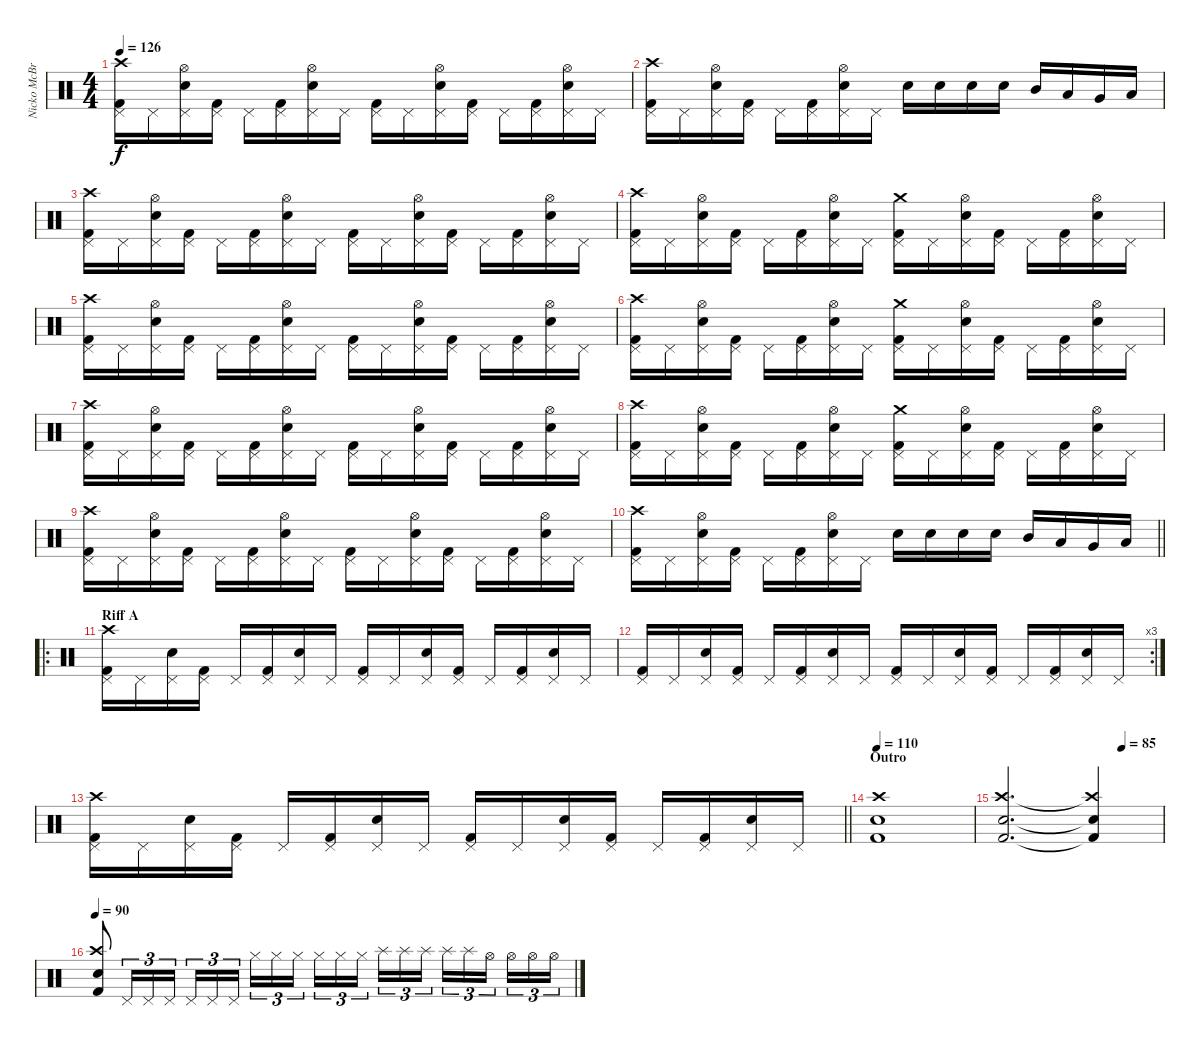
\track ("Nicko McBrain" "Nicko McBr") {instrument percussion}
\staff {score}
\articulation defaults
\ts (4 4)
\tempo 126
\clef neutral
\ks c
("Kick (hit) 2" "Pedal Hi-Hat (hit)" "Crash high (hit)").16{dy f} "Pedal Hi-Hat (hit)".16 ("Snare (hit) 2" "Pedal Hi-Hat (hit)" "Hi-Hat (open)").16 ("Kick (hit) 2" "Pedal Hi-Hat (hit)").16 "Pedal Hi-Hat (hit)".16 ("Kick (hit) 2" "Pedal Hi-Hat (hit)").16 ("Snare (hit) 2" "Pedal Hi-Hat (hit)" "Hi-Hat (open)").16 "Pedal Hi-Hat (hit)".16 ("Kick (hit) 2" "Pedal Hi-Hat (hit)").16 "Pedal Hi-Hat (hit)".16 ("Snare (hit) 2" "Pedal Hi-Hat (hit)" "Hi-Hat (open)").16 ("Kick (hit) 2" "Pedal Hi-Hat (hit)").16 "Pedal Hi-Hat (hit)".16 ("Kick (hit) 2" "Pedal Hi-Hat (hit)").16 ("Snare (hit) 2" "Pedal Hi-Hat (hit)" "Hi-Hat (open)").16 "Pedal Hi-Hat (hit)".16 |
("Kick (hit) 2" "Pedal Hi-Hat (hit)" "Crash high (hit)").16 "Pedal Hi-Hat (hit)".16 ("Snare (hit) 2" "Pedal Hi-Hat (hit)" "Hi-Hat (open)").16 ("Kick (hit) 2" "Pedal Hi-Hat (hit)").16 "Pedal Hi-Hat (hit)".16 ("Kick (hit) 2" "Pedal Hi-Hat (hit)").16 ("Snare (hit) 2" "Pedal Hi-Hat (hit)" "Hi-Hat (open)").16 "Pedal Hi-Hat (hit)".16 "Snare (hit) 2".16 "Snare (hit) 2".16 "Snare (hit) 2".16 "Snare (hit) 2".16 "Mid Tom (hit)".16 "Low Tom (hit)".16 "Very Low Tom (hit)".16 "Low Floor Tom (hit)".16 |
("Kick (hit) 2" "Pedal Hi-Hat (hit)" "Crash high (hit)").16 "Pedal Hi-Hat (hit)".16 ("Snare (hit) 2" "Pedal Hi-Hat (hit)" "Hi-Hat (open)").16 ("Kick (hit) 2" "Pedal Hi-Hat (hit)").16 "Pedal Hi-Hat (hit)".16 ("Kick (hit) 2" "Pedal Hi-Hat (hit)").16 ("Snare (hit) 2" "Pedal Hi-Hat (hit)" "Hi-Hat (open)").16 "Pedal Hi-Hat (hit)".16 ("Kick (hit) 2" "Pedal Hi-Hat (hit)").16 "Pedal Hi-Hat (hit)".16 ("Snare (hit) 2" "Pedal Hi-Hat (hit)" "Hi-Hat (open)").16 ("Kick (hit) 2" "Pedal Hi-Hat (hit)").16 "Pedal Hi-Hat (hit)".16 ("Kick (hit) 2" "Pedal Hi-Hat (hit)").16 ("Snare (hit) 2" "Pedal Hi-Hat (hit)" "Hi-Hat (open)").16 "Pedal Hi-Hat (hit)".16 |
("Kick (hit) 2" "Pedal Hi-Hat (hit)" "Crash high (hit)").16 "Pedal Hi-Hat (hit)".16 ("Snare (hit) 2" "Pedal Hi-Hat (hit)" "Hi-Hat (open)").16 ("Kick (hit) 2" "Pedal Hi-Hat (hit)").16 "Pedal Hi-Hat (hit)".16 ("Kick (hit) 2" "Pedal Hi-Hat (hit)").16 ("Snare (hit) 2" "Pedal Hi-Hat (hit)" "Hi-Hat (open)").16 "Pedal Hi-Hat (hit)".16 ("Kick (hit) 2" "Pedal Hi-Hat (hit)" "Crash medium (hit)").16 "Pedal Hi-Hat (hit)".16 ("Snare (hit) 2" "Pedal Hi-Hat (hit)" "Hi-Hat (open)").16 ("Kick (hit) 2" "Pedal Hi-Hat (hit)").16 "Pedal Hi-Hat (hit)".16 ("Kick (hit) 2" "Pedal Hi-Hat (hit)").16 ("Snare (hit) 2" "Pedal Hi-Hat (hit)" "Hi-Hat (open)").16 "Pedal Hi-Hat (hit)".16 |
("Kick (hit) 2" "Pedal Hi-Hat (hit)" "Crash high (hit)").16 "Pedal Hi-Hat (hit)".16 ("Snare (hit) 2" "Pedal Hi-Hat (hit)" "Hi-Hat (open)").16 ("Kick (hit) 2" "Pedal Hi-Hat (hit)").16 "Pedal Hi-Hat (hit)".16 ("Kick (hit) 2" "Pedal Hi-Hat (hit)").16 ("Snare (hit) 2" "Pedal Hi-Hat (hit)" "Hi-Hat (open)").16 "Pedal Hi-Hat (hit)".16 ("Kick (hit) 2" "Pedal Hi-Hat (hit)").16 "Pedal Hi-Hat (hit)".16 ("Snare (hit) 2" "Pedal Hi-Hat (hit)" "Hi-Hat (open)").16 ("Kick (hit) 2" "Pedal Hi-Hat (hit)").16 "Pedal Hi-Hat (hit)".16 ("Kick (hit) 2" "Pedal Hi-Hat (hit)").16 ("Snare (hit) 2" "Pedal Hi-Hat (hit)" "Hi-Hat (open)").16 "Pedal Hi-Hat (hit)".16 |
("Kick (hit) 2" "Pedal Hi-Hat (hit)" "Crash high (hit)").16 "Pedal Hi-Hat (hit)".16 ("Snare (hit) 2" "Pedal Hi-Hat (hit)" "Hi-Hat (open)").16 ("Kick (hit) 2" "Pedal Hi-Hat (hit)").16 "Pedal Hi-Hat (hit)".16 ("Kick (hit) 2" "Pedal Hi-Hat (hit)").16 ("Snare (hit) 2" "Pedal Hi-Hat (hit)" "Hi-Hat (open)").16 "Pedal Hi-Hat (hit)".16 ("Kick (hit) 2" "Pedal Hi-Hat (hit)" "Crash medium (hit)").16 "Pedal Hi-Hat (hit)".16 ("Snare (hit) 2" "Pedal Hi-Hat (hit)" "Hi-Hat (open)").16 ("Kick (hit) 2" "Pedal Hi-Hat (hit)").16 "Pedal Hi-Hat (hit)".16 ("Kick (hit) 2" "Pedal Hi-Hat (hit)").16 ("Snare (hit) 2" "Pedal Hi-Hat (hit)" "Hi-Hat (open)").16 "Pedal Hi-Hat (hit)".16 |
("Kick (hit) 2" "Pedal Hi-Hat (hit)" "Crash high (hit)").16 "Pedal Hi-Hat (hit)".16 ("Snare (hit) 2" "Pedal Hi-Hat (hit)" "Hi-Hat (open)").16 ("Kick (hit) 2" "Pedal Hi-Hat (hit)").16 "Pedal Hi-Hat (hit)".16 ("Kick (hit) 2" "Pedal Hi-Hat (hit)").16 ("Snare (hit) 2" "Pedal Hi-Hat (hit)" "Hi-Hat (open)").16 "Pedal Hi-Hat (hit)".16 ("Kick (hit) 2" "Pedal Hi-Hat (hit)").16 "Pedal Hi-Hat (hit)".16 ("Snare (hit) 2" "Pedal Hi-Hat (hit)" "Hi-Hat (open)").16 ("Kick (hit) 2" "Pedal Hi-Hat (hit)").16 "Pedal Hi-Hat (hit)".16 ("Kick (hit) 2" "Pedal Hi-Hat (hit)").16 ("Snare (hit) 2" "Pedal Hi-Hat (hit)" "Hi-Hat (open)").16 "Pedal Hi-Hat (hit)".16 |
("Kick (hit) 2" "Pedal Hi-Hat (hit)" "Crash high (hit)").16 "Pedal Hi-Hat (hit)".16 ("Snare (hit) 2" "Pedal Hi-Hat (hit)" "Hi-Hat (open)").16 ("Kick (hit) 2" "Pedal Hi-Hat (hit)").16 "Pedal Hi-Hat (hit)".16 ("Kick (hit) 2" "Pedal Hi-Hat (hit)").16 ("Snare (hit) 2" "Pedal Hi-Hat (hit)" "Hi-Hat (open)").16 "Pedal Hi-Hat (hit)".16 ("Kick (hit) 2" "Pedal Hi-Hat (hit)" "Crash medium (hit)").16 "Pedal Hi-Hat (hit)".16 ("Snare (hit) 2" "Pedal Hi-Hat (hit)" "Hi-Hat (open)").16 ("Kick (hit) 2" "Pedal Hi-Hat (hit)").16 "Pedal Hi-Hat (hit)".16 ("Kick (hit) 2" "Pedal Hi-Hat (hit)").16 ("Snare (hit) 2" "Pedal Hi-Hat (hit)" "Hi-Hat (open)").16 "Pedal Hi-Hat (hit)".16 |
("Kick (hit) 2" "Pedal Hi-Hat (hit)" "Crash high (hit)").16 "Pedal Hi-Hat (hit)".16 ("Snare (hit) 2" "Pedal Hi-Hat (hit)" "Hi-Hat (open)").16 ("Kick (hit) 2" "Pedal Hi-Hat (hit)").16 "Pedal Hi-Hat (hit)".16 ("Kick (hit) 2" "Pedal Hi-Hat (hit)").16 ("Snare (hit) 2" "Pedal Hi-Hat (hit)" "Hi-Hat (open)").16 "Pedal Hi-Hat (hit)".16 ("Kick (hit) 2" "Pedal Hi-Hat (hit)").16 "Pedal Hi-Hat (hit)".16 ("Snare (hit) 2" "Pedal Hi-Hat (hit)" "Hi-Hat (open)").16 ("Kick (hit) 2" "Pedal Hi-Hat (hit)").16 "Pedal Hi-Hat (hit)".16 ("Kick (hit) 2" "Pedal Hi-Hat (hit)").16 ("Snare (hit) 2" "Pedal Hi-Hat (hit)" "Hi-Hat (open)").16 "Pedal Hi-Hat (hit)".16 |
\barLineRight lightlight
("Kick (hit) 2" "Pedal Hi-Hat (hit)" "Crash high (hit)").16 "Pedal Hi-Hat (hit)".16 ("Snare (hit) 2" "Pedal Hi-Hat (hit)" "Hi-Hat (open)").16 ("Kick (hit) 2" "Pedal Hi-Hat (hit)").16 "Pedal Hi-Hat (hit)".16 ("Kick (hit) 2" "Pedal Hi-Hat (hit)").16 ("Snare (hit) 2" "Pedal Hi-Hat (hit)" "Hi-Hat (open)").16 "Pedal Hi-Hat (hit)".16 "Snare (hit) 2".16 "Snare (hit) 2".16 "Snare (hit) 2".16 "Snare (hit) 2".16 "Mid Tom (hit)".16 "Low Tom (hit)".16 "Very Low Tom (hit)".16 "Low Floor Tom (hit)".16 |
\ro
\section ("" "Riff A")
("Kick (hit) 2" "Pedal Hi-Hat (hit)" "Crash high (hit)").16 "Pedal Hi-Hat (hit)".16 ("Snare (hit) 2" "Pedal Hi-Hat (hit)").16 ("Kick (hit) 2" "Pedal Hi-Hat (hit)").16 "Pedal Hi-Hat (hit)".16 ("Kick (hit) 2" "Pedal Hi-Hat (hit)").16 ("Snare (hit) 2" "Pedal Hi-Hat (hit)").16 "Pedal Hi-Hat (hit)".16 ("Kick (hit) 2" "Pedal Hi-Hat (hit)").16 "Pedal Hi-Hat (hit)".16 ("Snare (hit) 2" "Pedal Hi-Hat (hit)").16 ("Kick (hit) 2" "Pedal Hi-Hat (hit)").16 "Pedal Hi-Hat (hit)".16 ("Kick (hit) 2" "Pedal Hi-Hat (hit)").16 ("Snare (hit) 2" "Pedal Hi-Hat (hit)").16 "Pedal Hi-Hat (hit)".16 |
\rc 3
("Kick (hit) 2" "Pedal Hi-Hat (hit)").16 "Pedal Hi-Hat (hit)".16 ("Snare (hit) 2" "Pedal Hi-Hat (hit)").16 ("Kick (hit) 2" "Pedal Hi-Hat (hit)").16 "Pedal Hi-Hat (hit)".16 ("Kick (hit) 2" "Pedal Hi-Hat (hit)").16 ("Snare (hit) 2" "Pedal Hi-Hat (hit)").16 "Pedal Hi-Hat (hit)".16 ("Kick (hit) 2" "Pedal Hi-Hat (hit)").16 "Pedal Hi-Hat (hit)".16 ("Snare (hit) 2" "Pedal Hi-Hat (hit)").16 ("Kick (hit) 2" "Pedal Hi-Hat (hit)").16 "Pedal Hi-Hat (hit)".16 ("Kick (hit) 2" "Pedal Hi-Hat (hit)").16 ("Snare (hit) 2" "Pedal Hi-Hat (hit)").16 "Pedal Hi-Hat (hit)".16 |
\barLineRight lightlight
("Kick (hit) 2" "Pedal Hi-Hat (hit)" "Crash high (hit)").16 "Pedal Hi-Hat (hit)".16 ("Snare (hit) 2" "Pedal Hi-Hat (hit)").16 ("Kick (hit) 2" "Pedal Hi-Hat (hit)").16 "Pedal Hi-Hat (hit)".16 ("Kick (hit) 2" "Pedal Hi-Hat (hit)").16 ("Snare (hit) 2" "Pedal Hi-Hat (hit)").16 "Pedal Hi-Hat (hit)".16 ("Kick (hit) 2" "Pedal Hi-Hat (hit)").16 "Pedal Hi-Hat (hit)".16 ("Snare (hit) 2" "Pedal Hi-Hat (hit)").16 ("Kick (hit) 2" "Pedal Hi-Hat (hit)").16 "Pedal Hi-Hat (hit)".16 ("Kick (hit) 2" "Pedal Hi-Hat (hit)").16 ("Snare (hit) 2" "Pedal Hi-Hat (hit)").16 "Pedal Hi-Hat (hit)".16 |
\section ("" "Outro")
\tempo 110
("Snare (hit) 2" "Kick (hit) 2" "Crash high (hit)").1 |
\tempo (85 0.75)
("Snare (hit) 2" "Kick (hit) 2" "Crash high (hit)").2{d} ("Snare (hit) 2"{t} "Kick (hit) 2"{t} "Crash high (hit)"{t}).4 |
\tempo 90
("Kick (hit) 2" "Snare (hit) 2" "Crash high (hit)").8 "Pedal Hi-Hat (hit)".16{tu (3 2)} "Pedal Hi-Hat (hit)".16{tu (3 2)} "Pedal Hi-Hat (hit)".16{tu (3 2)} "Pedal Hi-Hat (hit)".16{tu (3 2)} "Pedal Hi-Hat (hit)".16{tu (3 2)} "Pedal Hi-Hat (hit)".16{tu (3 2) beam splitsecondary} "Hi-Hat (closed)".16{tu (3 2)} "Hi-Hat (closed)".16{tu (3 2)} "Hi-Hat (closed)".16{tu (3 2)} "Hi-Hat (closed)".16{tu (3 2)} "Hi-Hat (closed)".16{tu (3 2)} "Hi-Hat (closed)".16{tu (3 2) beam splitsecondary} "Splash (hit)".16{tu (3 2)} "Splash (hit)".16{tu (3 2)} "Splash (hit)".16{tu (3 2)} "Splash (hit)".16{tu (3 2)} "Splash (hit)".16{tu (3 2)} "Hi-Hat (open)".16{tu (3 2) beam splitsecondary} "Hi-Hat (open)".16{tu (3 2)} "Hi-Hat (open)".16{tu (3 2)} "Hi-Hat (open)".16{tu (3 2)}
